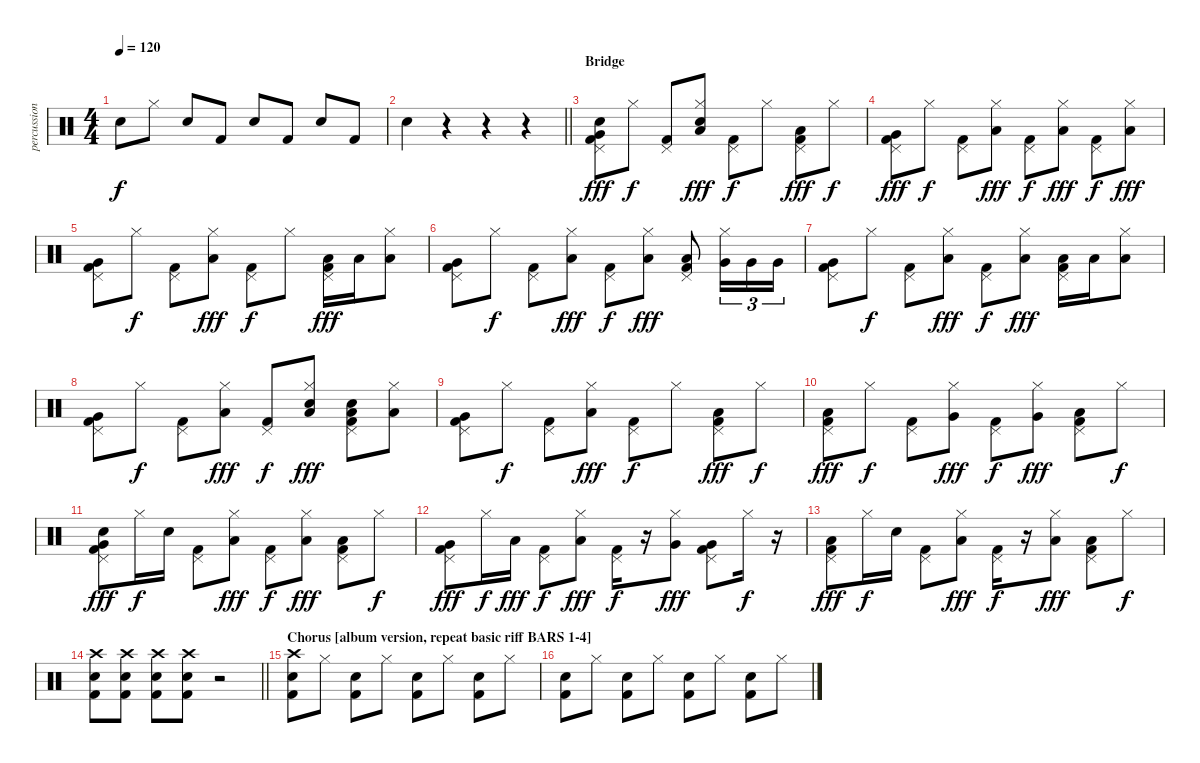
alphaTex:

\track ("percussion" "percussion") {instrument percussion}
\staff {score}
\articulation defaults
\ts (4 4)
\tempo 120
\clef neutral
\ks c "Snare (hit) 2".8{dy f} "Hi-Hat (closed)".8 "Snare (hit) 2".8 "Kick (hit) 2".8 "Snare (hit) 2".8 "Kick (hit) 2".8 "Snare (hit) 2".8 "Kick (hit) 2".8
|
\barLineRight lightlight "Snare (hit) 2".4
r.4 r.4 r.4 |
\section ("" "Bridge")
("Very Low Tom (hit)" "Snare (hit) 2" "Pedal Hi-Hat (hit)" "Kick (hit) 2").8{dy fff} "Hi-Hat (closed)".8{dy f} ("Pedal Hi-Hat (hit)" "Kick (hit) 2").8 ("Low Tom (hit)" "Snare (hit) 2" "Hi-Hat (closed)").8{dy fff} ("Pedal Hi-Hat (hit)" "Kick (hit) 2").8{dy f} "Hi-Hat (closed)".8 ("Low Tom (hit)" "Pedal Hi-Hat (hit)" "Kick (hit) 2").8{dy fff} "Hi-Hat (closed)".8{dy f} |
("Very Low Tom (hit)" "Pedal Hi-Hat (hit)" "Kick (hit) 2").8{dy fff} "Hi-Hat (closed)".8{dy f} ("Pedal Hi-Hat (hit)" "Kick (hit) 2").8 ("Low Tom (hit)" "Hi-Hat (closed)").8{dy fff} ("Pedal Hi-Hat (hit)" "Kick (hit) 2").8{dy f} ("Low Tom (hit)" "Hi-Hat (closed)").8{dy fff} ("Pedal Hi-Hat (hit)" "Kick (hit) 2").8{dy f} ("Low Tom (hit)" "Hi-Hat (closed)").8{dy fff} |
("Very Low Tom (hit)" "Pedal Hi-Hat (hit)" "Kick (hit) 2").8 "Hi-Hat (closed)".8{dy f} ("Pedal Hi-Hat (hit)" "Kick (hit) 2").8 ("Low Tom (hit)" "Hi-Hat (closed)").8{dy fff} ("Pedal Hi-Hat (hit)" "Kick (hit) 2").8{dy f} "Hi-Hat (closed)".8 ("Low Tom (hit)" "Pedal Hi-Hat (hit)" "Kick (hit) 2").16{dy fff} "Low Tom (hit)".16 ("Low Tom (hit)" "Hi-Hat (closed)").8 |
("Very Low Tom (hit)" "Pedal Hi-Hat (hit)" "Kick (hit) 2").8 "Hi-Hat (closed)".8{dy f} ("Pedal Hi-Hat (hit)" "Kick (hit) 2").8 ("Low Tom (hit)" "Hi-Hat (closed)").8{dy fff} ("Pedal Hi-Hat (hit)" "Kick (hit) 2").8{dy f} ("Low Tom (hit)" "Hi-Hat (closed)").8{dy fff} ("Low Tom (hit)" "Pedal Hi-Hat (hit)" "Kick (hit) 2").8 ("Very Low Tom (hit)" "Hi-Hat (closed)").16{tu (3 2)} "Very Low Tom (hit)".16{tu (3 2)} "Very Low Tom (hit)".16{tu (3 2)} |
("Very Low Tom (hit)" "Pedal Hi-Hat (hit)" "Kick (hit) 2").8 "Hi-Hat (closed)".8{dy f} ("Pedal Hi-Hat (hit)" "Kick (hit) 2").8 ("Low Tom (hit)" "Hi-Hat (closed)").8{dy fff} ("Pedal Hi-Hat (hit)" "Kick (hit) 2").8{dy f} ("Low Tom (hit)" "Hi-Hat (closed)").8{dy fff} ("Low Tom (hit)" "Pedal Hi-Hat (hit)" "Kick (hit) 2").16 "Low Tom (hit)".16 ("Low Tom (hit)" "Hi-Hat (closed)").8 |
("Very Low Tom (hit)" "Pedal Hi-Hat (hit)" "Kick (hit) 2").8 "Hi-Hat (closed)".8{dy f} ("Pedal Hi-Hat (hit)" "Kick (hit) 2").8 ("Low Tom (hit)" "Hi-Hat (closed)").8{dy fff} ("Pedal Hi-Hat (hit)" "Kick (hit) 2").8{dy f} ("Low Tom (hit)" "Snare (hit) 2" "Hi-Hat (closed)").8{dy fff} ("Low Tom (hit)" "Snare (hit) 2" "Pedal Hi-Hat (hit)" "Kick (hit) 2").8 ("Low Tom (hit)" "Hi-Hat (closed)").8 |
("Very Low Tom (hit)" "Pedal Hi-Hat (hit)" "Kick (hit) 2").8 "Hi-Hat (closed)".8{dy f} ("Pedal Hi-Hat (hit)" "Kick (hit) 2").8 ("Low Tom (hit)" "Hi-Hat (closed)").8{dy fff} ("Pedal Hi-Hat (hit)" "Kick (hit) 2").8{dy f} "Hi-Hat (closed)".8 ("Low Tom (hit)" "Pedal Hi-Hat (hit)" "Kick (hit) 2").8{dy fff} "Hi-Hat (closed)".8{dy f} |
("Low Tom (hit)" "Pedal Hi-Hat (hit)" "Kick (hit) 2").8{dy fff} "Hi-Hat (closed)".8{dy f} ("Pedal Hi-Hat (hit)" "Kick (hit) 2").8 ("Very Low Tom (hit)" "Hi-Hat (closed)").8{dy fff} ("Pedal Hi-Hat (hit)" "Kick (hit) 2").8{dy f} ("Very Low Tom (hit)" "Hi-Hat (closed)").8{dy fff} ("Low Tom (hit)" "Pedal Hi-Hat (hit)" "Kick (hit) 2").8 "Hi-Hat (closed)".8{dy f} |
("Very Low Tom (hit)" "Snare (hit) 2" "Pedal Hi-Hat (hit)" "Kick (hit) 2").8{dy fff} "Hi-Hat (closed)".16{dy f} "Snare (hit) 2".16 ("Pedal Hi-Hat (hit)" "Kick (hit) 2").8 ("Low Tom (hit)" "Hi-Hat (closed)").8{dy fff} ("Pedal Hi-Hat (hit)" "Kick (hit) 2").8{dy f} ("Low Tom (hit)" "Hi-Hat (closed)").8{dy fff} ("Low Tom (hit)" "Pedal Hi-Hat (hit)" "Kick (hit) 2").8 "Hi-Hat (closed)".8{dy f} |
("Very Low Tom (hit)" "Pedal Hi-Hat (hit)" "Kick (hit) 2").8{dy fff} "Hi-Hat (closed)".16{dy f} "Low Tom (hit)".16{dy fff} ("Pedal Hi-Hat (hit)" "Kick (hit) 2").8{dy f} ("Low Tom (hit)" "Hi-Hat (closed)").8{dy fff} ("Pedal Hi-Hat (hit)" "Kick (hit) 2").16{dy f} r.16 ("Very Low Tom (hit)" "Hi-Hat (closed)").8{dy fff} ("Very Low Tom (hit)" "Pedal Hi-Hat (hit)" "Kick (hit) 2").8 "Hi-Hat (closed)".16{dy f} r.16 |
("Low Tom (hit)" "Pedal Hi-Hat (hit)" "Kick (hit) 2").8{dy fff} "Hi-Hat (closed)".16{dy f} "Snare (hit) 2".16 ("Pedal Hi-Hat (hit)" "Kick (hit) 2").8 ("Low Tom (hit)" "Hi-Hat (closed)").8{dy fff} ("Pedal Hi-Hat (hit)" "Kick (hit) 2").16{dy f} r.16 ("Low Tom (hit)" "Hi-Hat (closed)").8{dy fff} ("Low Tom (hit)" "Pedal Hi-Hat (hit)" "Kick (hit) 2").8 "Hi-Hat (closed)".8{dy f} |
\barLineRight lightlight
("Crash high (hit)" "Snare (hit) 2" "Kick (hit) 2").8 ("Crash high (hit)" "Snare (hit) 2" "Kick (hit) 2").8 ("Crash high (hit)" "Snare (hit) 2" "Kick (hit) 2").8 ("Crash high (hit)" "Snare (hit) 2" "Kick (hit) 2").8 r.2 |
\section ("" "Chorus [album version, repeat basic riff BARS 1-4]")
("Crash high (hit)" "Snare (hit) 2" "Kick (hit) 2").8 "Hi-Hat (closed)".8 ("Snare (hit) 2" "Kick (hit) 2").8 "Hi-Hat (closed)".8 ("Snare (hit) 2" "Kick (hit) 2").8 "Hi-Hat (closed)".8 ("Snare (hit) 2" "Kick (hit) 2").8 "Hi-Hat (closed)".8 |
("Snare (hit) 2" "Kick (hit) 2").8 "Hi-Hat (closed)".8 ("Snare (hit) 2" "Kick (hit) 2").8 "Hi-Hat (closed)".8 ("Snare (hit) 2" "Kick (hit) 2").8 "Hi-Hat (closed)".8 ("Snare (hit) 2" "Kick (hit) 2").8 "Hi-Hat (closed)".8
